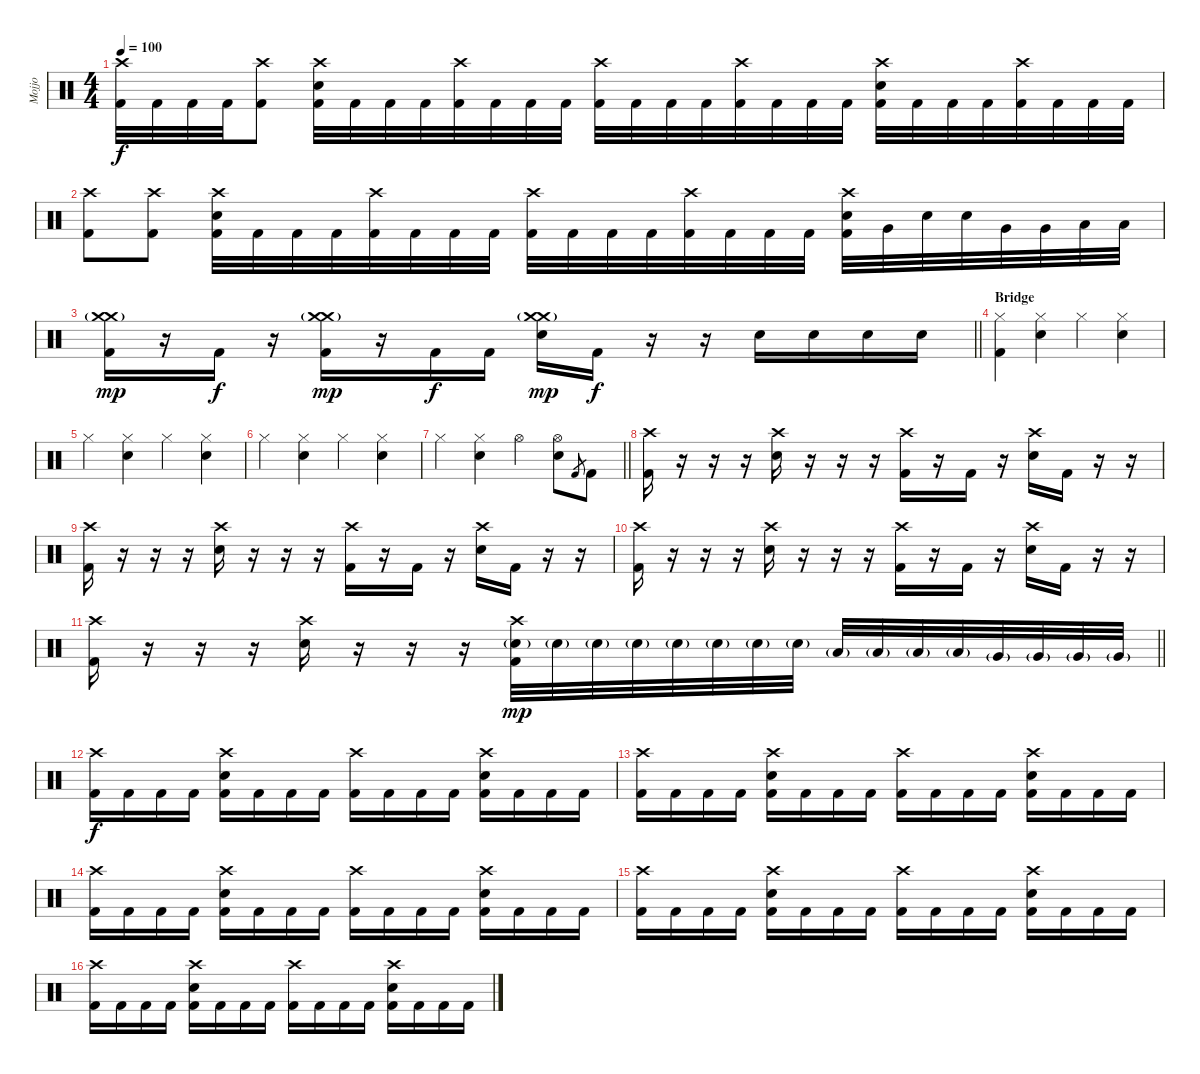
\track ("Mojjo" "Mojjo") {instrument percussion}
\staff {score}
\articulation defaults
\ts (4 4)
\tempo 100
\clef neutral
\ks c
("Crash high (hit)" "Kick (hit) 2").32{dy f} "Kick (hit) 2".32 "Kick (hit) 2".32 "Kick (hit) 2".32 ("Crash high (hit)" "Kick (hit) 2").8 ("Crash high (hit)" "Electric Snare (hit)" "Kick (hit) 2").32 "Kick (hit) 2".32 "Kick (hit) 2".32 "Kick (hit) 2".32 ("Crash high (hit)" "Kick (hit) 2").32 "Kick (hit) 2".32 "Kick (hit) 2".32 "Kick (hit) 2".32 ("Crash high (hit)" "Kick (hit) 2").32 "Kick (hit) 2".32 "Kick (hit) 2".32 "Kick (hit) 2".32 ("Crash high (hit)" "Kick (hit) 2").32 "Kick (hit) 2".32 "Kick (hit) 2".32 "Kick (hit) 2".32 ("Crash high (hit)" "Electric Snare (hit)" "Kick (hit) 2").32 "Kick (hit) 2".32 "Kick (hit) 2".32 "Kick (hit) 2".32 ("Crash high (hit)" "Kick (hit) 2").32 "Kick (hit) 2".32 "Kick (hit) 2".32 "Kick (hit) 2".32 |
("Crash high (hit)" "Kick (hit) 2").8 ("Crash high (hit)" "Kick (hit) 2").8 ("Crash high (hit)" "Electric Snare (hit)" "Kick (hit) 2").32 "Kick (hit) 2".32 "Kick (hit) 2".32 "Kick (hit) 2".32 ("Crash high (hit)" "Kick (hit) 2").32 "Kick (hit) 2".32 "Kick (hit) 2".32 "Kick (hit) 2".32 ("Crash high (hit)" "Kick (hit) 2").32 "Kick (hit) 2".32 "Kick (hit) 2".32 "Kick (hit) 2".32 ("Crash high (hit)" "Kick (hit) 2").32 "Kick (hit) 2".32 "Kick (hit) 2".32 "Kick (hit) 2".32 ("Crash high (hit)" "Electric Snare (hit)" "Kick (hit) 2").32 "Very Low Tom (hit)".32 "Electric Snare (hit)".32 "Electric Snare (hit)".32 "Very Low Tom (hit)".32 "Very Low Tom (hit)".32 "Low Floor Tom (hit)".32 "Low Floor Tom (hit)".32 |
\barLineRight lightlight
("Crash medium (hit)"{g} "Crash medium (hit)" "Kick (hit) 2").16{dy mp} r.16 "Kick (hit) 2".16{dy f} r.16 ("Crash medium (hit)"{g} "Crash medium (hit)" "Kick (hit) 2").16{dy mp} r.16 "Kick (hit) 2".16{dy f} "Kick (hit) 2".16 ("Crash medium (hit)"{g} "Crash medium (hit)" "Electric Snare (hit)").16{dy mp} "Kick (hit) 2".16{dy f} r.16 r.16 "Electric Snare (hit)".16 "Electric Snare (hit)".16 "Electric Snare (hit)".16 "Electric Snare (hit)".16 |
\section ("" "Bridge")
("Hi-Hat (closed)" "Kick (hit) 2").4 ("Hi-Hat (closed)" "Electric Snare (hit)").4 "Hi-Hat (closed)".4 ("Hi-Hat (closed)" "Electric Snare (hit)").4 |
"Hi-Hat (closed)".4 ("Hi-Hat (closed)" "Electric Snare (hit)").4 "Hi-Hat (closed)".4 ("Hi-Hat (closed)" "Electric Snare (hit)").4 |
"Hi-Hat (closed)".4 ("Hi-Hat (closed)" "Electric Snare (hit)").4 "Hi-Hat (closed)".4 ("Hi-Hat (closed)" "Electric Snare (hit)").4 |
\barLineRight lightlight "Hi-Hat (closed)".4
("Hi-Hat (closed)" "Electric Snare (hit)").4 "Hi-Hat (open)".4 ("Hi-Hat (open)" "Electric Snare (hit)").8 "Kick (hit) 2".8{gr} "Kick (hit) 2".8 |
\section ("" "")
("Crash high (hit)" "Kick (hit) 2").16 r.16 r.16 r.16 ("Crash high (hit)" "Electric Snare (hit)").16 r.16 r.16 r.16 ("Crash high (hit)" "Kick (hit) 2").16 r.16 "Kick (hit) 2".16 r.16 ("Crash high (hit)" "Electric Snare (hit)").16 "Kick (hit) 2".16 r.16 r.16 |
("Crash high (hit)" "Kick (hit) 2").16 r.16 r.16 r.16 ("Crash high (hit)" "Electric Snare (hit)").16 r.16 r.16 r.16 ("Crash high (hit)" "Kick (hit) 2").16 r.16 "Kick (hit) 2".16 r.16 ("Crash high (hit)" "Electric Snare (hit)").16 "Kick (hit) 2".16 r.16 r.16 |
("Crash high (hit)" "Kick (hit) 2").16 r.16 r.16 r.16 ("Crash high (hit)" "Electric Snare (hit)").16 r.16 r.16 r.16 ("Crash high (hit)" "Kick (hit) 2").16 r.16 "Kick (hit) 2".16 r.16 ("Crash high (hit)" "Electric Snare (hit)").16 "Kick (hit) 2".16 r.16 r.16 |
\barLineRight lightlight
("Crash high (hit)" "Kick (hit) 2").16 r.16 r.16 r.16 ("Crash high (hit)" "Electric Snare (hit)").16 r.16 r.16 r.16 ("Crash high (hit)" "Electric Snare (hit)"{g} "Kick (hit) 2").32{dy mp} "Electric Snare (hit)"{g}.32 "Electric Snare (hit)"{g}.32 "Electric Snare (hit)"{g}.32 "Electric Snare (hit)"{g}.32 "Electric Snare (hit)"{g}.32 "Electric Snare (hit)"{g}.32 "Electric Snare (hit)"{g}.32 "Low Tom (hit)"{g}.32 "Low Tom (hit)"{g}.32 "Low Tom (hit)"{g}.32 "Low Tom (hit)"{g}.32 "Very Low Tom (hit)"{g}.32 "Very Low Tom (hit)"{g}.32 "Very Low Tom (hit)"{g}.32 "Very Low Tom (hit)"{g}.32 |
\section ("" "")
("Crash high (hit)" "Kick (hit) 2").16{dy f} "Kick (hit) 2".16 "Kick (hit) 2".16 "Kick (hit) 2".16 ("Crash high (hit)" "Electric Snare (hit)" "Kick (hit) 2").16 "Kick (hit) 2".16 "Kick (hit) 2".16 "Kick (hit) 2".16 ("Crash high (hit)" "Kick (hit) 2").16 "Kick (hit) 2".16 "Kick (hit) 2".16 "Kick (hit) 2".16 ("Crash high (hit)" "Electric Snare (hit)" "Kick (hit) 2").16 "Kick (hit) 2".16 "Kick (hit) 2".16 "Kick (hit) 2".16 |
("Crash high (hit)" "Kick (hit) 2").16 "Kick (hit) 2".16 "Kick (hit) 2".16 "Kick (hit) 2".16 ("Crash high (hit)" "Electric Snare (hit)" "Kick (hit) 2").16 "Kick (hit) 2".16 "Kick (hit) 2".16 "Kick (hit) 2".16 ("Crash high (hit)" "Kick (hit) 2").16 "Kick (hit) 2".16 "Kick (hit) 2".16 "Kick (hit) 2".16 ("Crash high (hit)" "Electric Snare (hit)" "Kick (hit) 2").16 "Kick (hit) 2".16 "Kick (hit) 2".16 "Kick (hit) 2".16 |
("Crash high (hit)" "Kick (hit) 2").16 "Kick (hit) 2".16 "Kick (hit) 2".16 "Kick (hit) 2".16 ("Crash high (hit)" "Electric Snare (hit)" "Kick (hit) 2").16 "Kick (hit) 2".16 "Kick (hit) 2".16 "Kick (hit) 2".16 ("Crash high (hit)" "Kick (hit) 2").16 "Kick (hit) 2".16 "Kick (hit) 2".16 "Kick (hit) 2".16 ("Crash high (hit)" "Electric Snare (hit)" "Kick (hit) 2").16 "Kick (hit) 2".16 "Kick (hit) 2".16 "Kick (hit) 2".16 |
("Crash high (hit)" "Kick (hit) 2").16 "Kick (hit) 2".16 "Kick (hit) 2".16 "Kick (hit) 2".16 ("Crash high (hit)" "Electric Snare (hit)" "Kick (hit) 2").16 "Kick (hit) 2".16 "Kick (hit) 2".16 "Kick (hit) 2".16 ("Crash high (hit)" "Kick (hit) 2").16 "Kick (hit) 2".16 "Kick (hit) 2".16 "Kick (hit) 2".16 ("Crash high (hit)" "Electric Snare (hit)" "Kick (hit) 2").16 "Kick (hit) 2".16 "Kick (hit) 2".16 "Kick (hit) 2".16 |
("Crash high (hit)" "Kick (hit) 2").16 "Kick (hit) 2".16 "Kick (hit) 2".16 "Kick (hit) 2".16 ("Crash high (hit)" "Electric Snare (hit)" "Kick (hit) 2").16 "Kick (hit) 2".16 "Kick (hit) 2".16 "Kick (hit) 2".16 ("Crash high (hit)" "Kick (hit) 2").16 "Kick (hit) 2".16 "Kick (hit) 2".16 "Kick (hit) 2".16 ("Crash high (hit)" "Electric Snare (hit)" "Kick (hit) 2").16 "Kick (hit) 2".16 "Kick (hit) 2".16 "Kick (hit) 2".16
